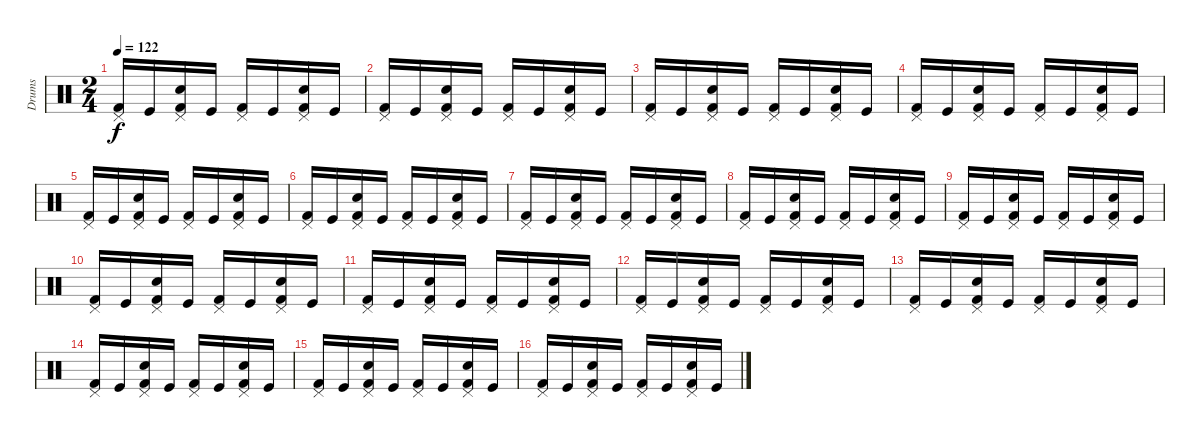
\track ("Drums" "Drums") {instrument percussion}
\staff {score}
\articulation defaults
\ts (2 4)
\tempo 122
\clef neutral
\ks c
("Pedal Hi-Hat (hit)" "Kick (hit) 2").16{dy f} "Kick (hit)".16 ("Pedal Hi-Hat (hit)" "Snare (hit) 2" "Kick (hit) 2").16 "Kick (hit)".16 ("Pedal Hi-Hat (hit)" "Kick (hit) 2").16 "Kick (hit)".16 ("Pedal Hi-Hat (hit)" "Snare (hit) 2" "Kick (hit) 2").16 "Kick (hit)".16 |
("Pedal Hi-Hat (hit)" "Kick (hit) 2").16 "Kick (hit)".16 ("Pedal Hi-Hat (hit)" "Snare (hit) 2" "Kick (hit) 2").16 "Kick (hit)".16 ("Pedal Hi-Hat (hit)" "Kick (hit) 2").16 "Kick (hit)".16 ("Pedal Hi-Hat (hit)" "Snare (hit) 2" "Kick (hit) 2").16 "Kick (hit)".16 |
("Pedal Hi-Hat (hit)" "Kick (hit) 2").16 "Kick (hit)".16 ("Pedal Hi-Hat (hit)" "Snare (hit) 2" "Kick (hit) 2").16 "Kick (hit)".16 ("Pedal Hi-Hat (hit)" "Kick (hit) 2").16 "Kick (hit)".16 ("Pedal Hi-Hat (hit)" "Snare (hit) 2" "Kick (hit) 2").16 "Kick (hit)".16 |
("Pedal Hi-Hat (hit)" "Kick (hit) 2").16 "Kick (hit)".16 ("Pedal Hi-Hat (hit)" "Snare (hit) 2" "Kick (hit) 2").16 "Kick (hit)".16 ("Pedal Hi-Hat (hit)" "Kick (hit) 2").16 "Kick (hit)".16 ("Pedal Hi-Hat (hit)" "Snare (hit) 2" "Kick (hit) 2").16 "Kick (hit)".16 |
("Pedal Hi-Hat (hit)" "Kick (hit) 2").16 "Kick (hit)".16 ("Pedal Hi-Hat (hit)" "Snare (hit) 2" "Kick (hit) 2").16 "Kick (hit)".16 ("Pedal Hi-Hat (hit)" "Kick (hit) 2").16 "Kick (hit)".16 ("Pedal Hi-Hat (hit)" "Snare (hit) 2" "Kick (hit) 2").16 "Kick (hit)".16 |
("Pedal Hi-Hat (hit)" "Kick (hit) 2").16 "Kick (hit)".16 ("Pedal Hi-Hat (hit)" "Snare (hit) 2" "Kick (hit) 2").16 "Kick (hit)".16 ("Pedal Hi-Hat (hit)" "Kick (hit) 2").16 "Kick (hit)".16 ("Pedal Hi-Hat (hit)" "Snare (hit) 2" "Kick (hit) 2").16 "Kick (hit)".16 |
("Pedal Hi-Hat (hit)" "Kick (hit) 2").16 "Kick (hit)".16 ("Pedal Hi-Hat (hit)" "Snare (hit) 2" "Kick (hit) 2").16 "Kick (hit)".16 ("Pedal Hi-Hat (hit)" "Kick (hit) 2").16 "Kick (hit)".16 ("Pedal Hi-Hat (hit)" "Snare (hit) 2" "Kick (hit) 2").16 "Kick (hit)".16 |
("Pedal Hi-Hat (hit)" "Kick (hit) 2").16 "Kick (hit)".16 ("Pedal Hi-Hat (hit)" "Snare (hit) 2" "Kick (hit) 2").16 "Kick (hit)".16 ("Pedal Hi-Hat (hit)" "Kick (hit) 2").16 "Kick (hit)".16 ("Pedal Hi-Hat (hit)" "Snare (hit) 2" "Kick (hit) 2").16 "Kick (hit)".16 |
("Pedal Hi-Hat (hit)" "Kick (hit) 2").16 "Kick (hit)".16 ("Pedal Hi-Hat (hit)" "Snare (hit) 2" "Kick (hit) 2").16 "Kick (hit)".16 ("Pedal Hi-Hat (hit)" "Kick (hit) 2").16 "Kick (hit)".16 ("Pedal Hi-Hat (hit)" "Snare (hit) 2" "Kick (hit) 2").16 "Kick (hit)".16 |
("Pedal Hi-Hat (hit)" "Kick (hit) 2").16 "Kick (hit)".16 ("Pedal Hi-Hat (hit)" "Snare (hit) 2" "Kick (hit) 2").16 "Kick (hit)".16 ("Pedal Hi-Hat (hit)" "Kick (hit) 2").16 "Kick (hit)".16 ("Pedal Hi-Hat (hit)" "Snare (hit) 2" "Kick (hit) 2").16 "Kick (hit)".16 |
("Pedal Hi-Hat (hit)" "Kick (hit) 2").16 "Kick (hit)".16 ("Pedal Hi-Hat (hit)" "Snare (hit) 2" "Kick (hit) 2").16 "Kick (hit)".16 ("Pedal Hi-Hat (hit)" "Kick (hit) 2").16 "Kick (hit)".16 ("Pedal Hi-Hat (hit)" "Snare (hit) 2" "Kick (hit) 2").16 "Kick (hit)".16 |
("Pedal Hi-Hat (hit)" "Kick (hit) 2").16 "Kick (hit)".16 ("Pedal Hi-Hat (hit)" "Snare (hit) 2" "Kick (hit) 2").16 "Kick (hit)".16 ("Pedal Hi-Hat (hit)" "Kick (hit) 2").16 "Kick (hit)".16 ("Pedal Hi-Hat (hit)" "Snare (hit) 2" "Kick (hit) 2").16 "Kick (hit)".16 |
("Pedal Hi-Hat (hit)" "Kick (hit) 2").16 "Kick (hit)".16 ("Pedal Hi-Hat (hit)" "Snare (hit) 2" "Kick (hit) 2").16 "Kick (hit)".16 ("Pedal Hi-Hat (hit)" "Kick (hit) 2").16 "Kick (hit)".16 ("Pedal Hi-Hat (hit)" "Snare (hit) 2" "Kick (hit) 2").16 "Kick (hit)".16 |
("Pedal Hi-Hat (hit)" "Kick (hit) 2").16 "Kick (hit)".16 ("Pedal Hi-Hat (hit)" "Snare (hit) 2" "Kick (hit) 2").16 "Kick (hit)".16 ("Pedal Hi-Hat (hit)" "Kick (hit) 2").16 "Kick (hit)".16 ("Pedal Hi-Hat (hit)" "Snare (hit) 2" "Kick (hit) 2").16 "Kick (hit)".16 |
("Pedal Hi-Hat (hit)" "Kick (hit) 2").16 "Kick (hit)".16 ("Pedal Hi-Hat (hit)" "Snare (hit) 2" "Kick (hit) 2").16 "Kick (hit)".16 ("Pedal Hi-Hat (hit)" "Kick (hit) 2").16 "Kick (hit)".16 ("Pedal Hi-Hat (hit)" "Snare (hit) 2" "Kick (hit) 2").16 "Kick (hit)".16 |
("Pedal Hi-Hat (hit)" "Kick (hit) 2").16 "Kick (hit)".16 ("Pedal Hi-Hat (hit)" "Snare (hit) 2" "Kick (hit) 2").16 "Kick (hit)".16 ("Pedal Hi-Hat (hit)" "Kick (hit) 2").16 "Kick (hit)".16 ("Pedal Hi-Hat (hit)" "Snare (hit) 2" "Kick (hit) 2").16 "Kick (hit)".16
